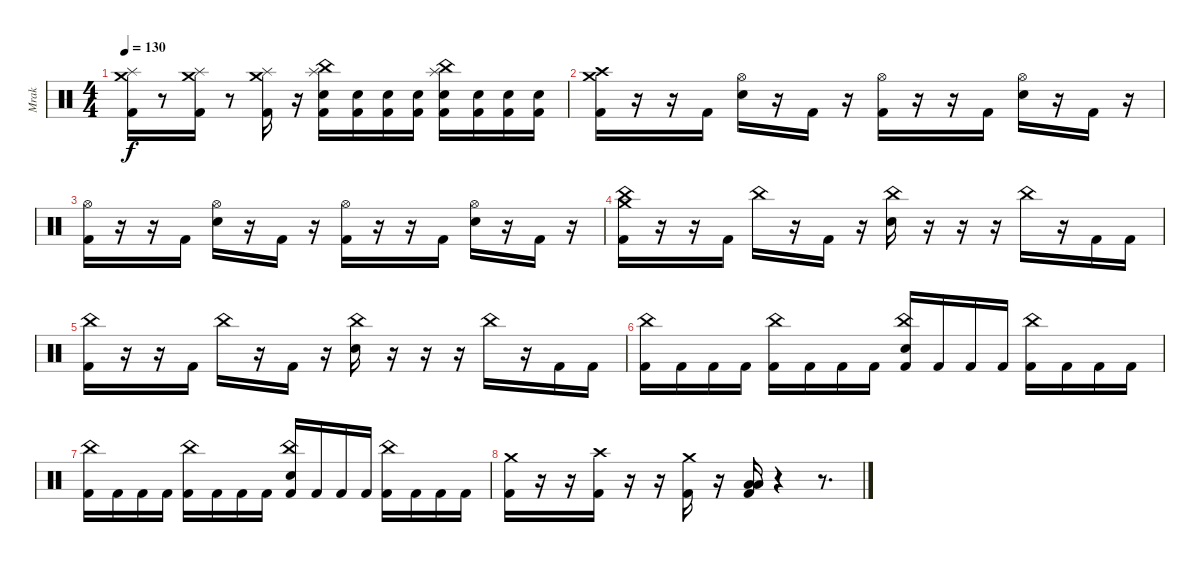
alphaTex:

\track ("Mrak" "Mrak") {instrument percussion}
\staff {score}
\articulation defaults
\ts (4 4)
\tempo 130
\clef neutral
\ks c
("Crash medium (hit)" "Splash (hit)" "Kick (hit) 2").16{dy f} r.8 ("Crash medium (hit)" "Splash (hit)" "Kick (hit) 2").16 r.8 ("Crash medium (hit)" "Splash (hit)" "Kick (hit) 2").16 r.16 ("China (hit)" "Splash (hit)" "Electric Snare (hit)" "Kick (hit) 2").16 ("Electric Snare (hit)" "Kick (hit) 2").16 ("Electric Snare (hit)" "Kick (hit) 2").16 ("Electric Snare (hit)" "Kick (hit) 2").16 ("China (hit)" "Splash (hit)" "Electric Snare (hit)" "Kick (hit) 2").16 ("Electric Snare (hit)" "Kick (hit) 2").16 ("Electric Snare (hit)" "Kick (hit) 2").16 ("Electric Snare (hit)" "Kick (hit) 2").16 |
("Crash medium (hit)" "Crash high (hit)" "Kick (hit) 2").16 r.16 r.16 "Kick (hit) 2".16 ("Hi-Hat (open)" "Electric Snare (hit)").16 r.16 "Kick (hit) 2".16 r.16 ("Hi-Hat (open)" "Kick (hit) 2").16 r.16 r.16 "Kick (hit) 2".16 ("Hi-Hat (open)" "Electric Snare (hit)").16 r.16 "Kick (hit) 2".16 r.16 |
("Hi-Hat (open)" "Kick (hit) 2").16 r.16 r.16 "Kick (hit) 2".16 ("Hi-Hat (open)" "Electric Snare (hit)").16 r.16 "Kick (hit) 2".16 r.16 ("Hi-Hat (open)" "Kick (hit) 2").16 r.16 r.16 "Kick (hit) 2".16 ("Hi-Hat (open)" "Electric Snare (hit)").16 r.16 "Kick (hit) 2".16 r.16 |
("Crash medium (hit)" "China (hit)" "Kick (hit) 2").16 r.16 r.16 "Kick (hit) 2".16 "China (hit)".16 r.16 "Kick (hit) 2".16 r.16 ("China (hit)" "Electric Snare (hit)").16 r.16 r.16 r.16 "China (hit)".16 r.16 "Kick (hit) 2".16 "Kick (hit) 2".16 |
("China (hit)" "Kick (hit) 2").16 r.16 r.16 "Kick (hit) 2".16 "China (hit)".16 r.16 "Kick (hit) 2".16 r.16 ("China (hit)" "Electric Snare (hit)").16 r.16 r.16 r.16 "China (hit)".16 r.16 "Kick (hit) 2".16 "Kick (hit) 2".16 |
("China (hit)" "Kick (hit) 2").16 "Kick (hit) 2".16 "Kick (hit) 2".16 "Kick (hit) 2".16 ("China (hit)" "Kick (hit) 2").16 "Kick (hit) 2".16 "Kick (hit) 2".16 "Kick (hit) 2".16 ("China (hit)" "Electric Snare (hit)" "Kick (hit) 2").16 "Kick (hit) 2".16 "Kick (hit) 2".16 "Kick (hit) 2".16 ("China (hit)" "Kick (hit) 2").16 "Kick (hit) 2".16 "Kick (hit) 2".16 "Kick (hit) 2".16 |
("China (hit)" "Kick (hit) 2").16 "Kick (hit) 2".16 "Kick (hit) 2".16 "Kick (hit) 2".16 ("China (hit)" "Kick (hit) 2").16 "Kick (hit) 2".16 "Kick (hit) 2".16 "Kick (hit) 2".16 ("China (hit)" "Electric Snare (hit)" "Kick (hit) 2").16 "Kick (hit) 2".16 "Kick (hit) 2".16 "Kick (hit) 2".16 ("China (hit)" "Kick (hit) 2").16 "Kick (hit) 2".16 "Kick (hit) 2".16 "Kick (hit) 2".16 |
("Crash medium (hit)" "Kick (hit) 2").16 r.16 r.16 ("Crash high (hit)" "Kick (hit) 2").16 r.16 r.16 ("Crash medium (hit)" "Kick (hit) 2").16 r.16 ("Low Tom (hit)" "Low Floor Tom (hit)" "Kick (hit) 2").16 r.4 r.8{d}
